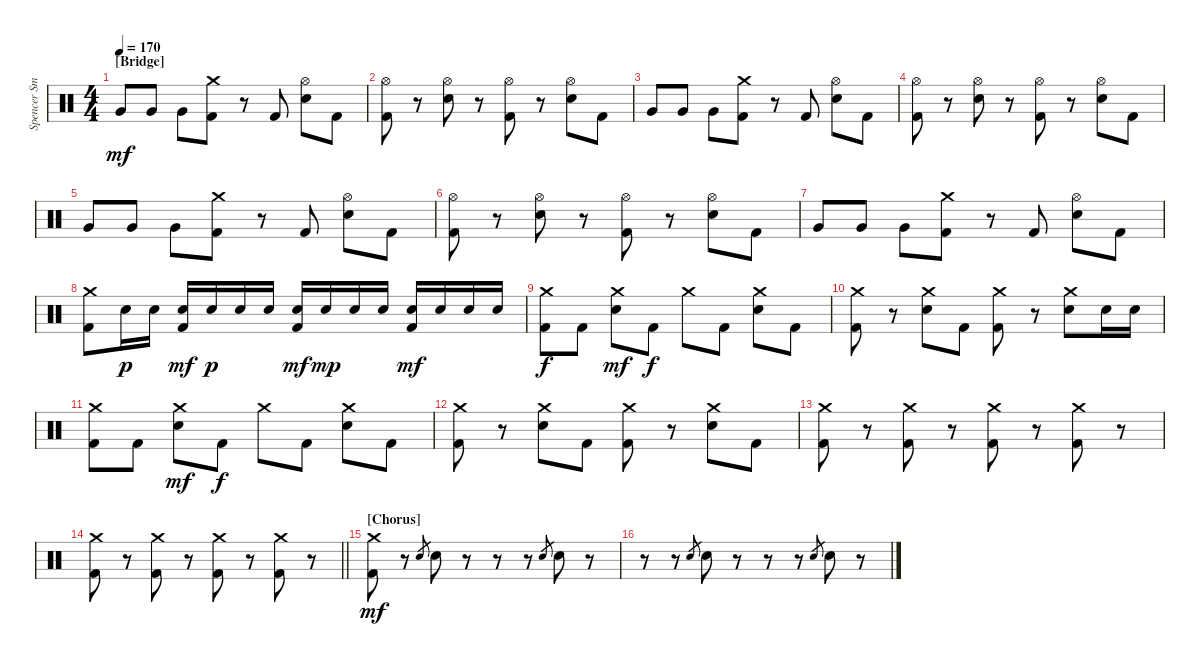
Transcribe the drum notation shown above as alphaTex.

\track ("Spencer Smith" "Spencer Sm") {instrument percussion}
\staff {score}
\articulation defaults
\ts (4 4)
\section ("" "[Bridge]")
\tempo 170
\clef neutral
\ks c "Very Low Tom (hit)".8{dy mf} "Very Low Tom (hit)".8 "Very Low Tom (hit)".8
("Crash medium (hit)" "Kick (hit) 2").8 r.8 "Kick (hit) 2".8 ("Hi-Hat (open)" "Electric Snare (hit)").8 "Kick (hit) 2".8 |
("Hi-Hat (open)" "Kick (hit) 2").8 r.8 ("Hi-Hat (open)" "Electric Snare (hit)").8 r.8 ("Hi-Hat (open)" "Kick (hit) 2").8 r.8 ("Hi-Hat (open)" "Electric Snare (hit)").8 "Kick (hit) 2".8 |
"Very Low Tom (hit)".8 "Very Low Tom (hit)".8 "Very Low Tom (hit)".8 ("Crash medium (hit)" "Kick (hit) 2").8 r.8 "Kick (hit) 2".8 ("Hi-Hat (open)" "Electric Snare (hit)").8 "Kick (hit) 2".8 |
("Hi-Hat (open)" "Kick (hit) 2").8 r.8 ("Hi-Hat (open)" "Electric Snare (hit)").8 r.8 ("Hi-Hat (open)" "Kick (hit) 2").8 r.8 ("Hi-Hat (open)" "Electric Snare (hit)").8 "Kick (hit) 2".8 |
"Very Low Tom (hit)".8 "Very Low Tom (hit)".8 "Very Low Tom (hit)".8 ("Crash medium (hit)" "Kick (hit) 2").8 r.8 "Kick (hit) 2".8 ("Hi-Hat (open)" "Electric Snare (hit)").8 "Kick (hit) 2".8 |
("Hi-Hat (open)" "Kick (hit) 2").8 r.8 ("Hi-Hat (open)" "Electric Snare (hit)").8 r.8 ("Hi-Hat (open)" "Kick (hit) 2").8 r.8 ("Hi-Hat (open)" "Electric Snare (hit)").8 "Kick (hit) 2".8 |
"Very Low Tom (hit)".8 "Very Low Tom (hit)".8 "Very Low Tom (hit)".8 ("Crash medium (hit)" "Kick (hit) 2").8 r.8 "Kick (hit) 2".8 ("Hi-Hat (open)" "Electric Snare (hit)").8 "Kick (hit) 2".8 |
("Crash medium (hit)" "Kick (hit) 2").8 "Electric Snare (hit)".16{dy p} "Electric Snare (hit)".16 ("Electric Snare (hit)" "Kick (hit) 2").16{dy mf} "Electric Snare (hit)".16{dy p} "Electric Snare (hit)".16 "Electric Snare (hit)".16 ("Electric Snare (hit)" "Kick (hit) 2").16{dy mf} "Electric Snare (hit)".16{dy mp} "Electric Snare (hit)".16 "Electric Snare (hit)".16 ("Electric Snare (hit)" "Kick (hit) 2").16{dy mf} "Electric Snare (hit)".16 "Electric Snare (hit)".16 "Electric Snare (hit)".16 |
("Crash medium (hit)" "Kick (hit) 2").8{dy f} "Kick (hit) 2".8 ("Crash medium (hit)" "Electric Snare (hit)").8{dy mf} "Kick (hit) 2".8{dy f} "Crash medium (hit)".8 "Kick (hit) 2".8 ("Crash medium (hit)" "Electric Snare (hit)").8 "Kick (hit) 2".8 |
("Crash medium (hit)" "Kick (hit) 2").8 r.8 ("Crash medium (hit)" "Electric Snare (hit)").8 "Kick (hit) 2".8 ("Crash medium (hit)" "Kick (hit) 2").8 r.8 ("Crash medium (hit)" "Electric Snare (hit)").8 "Electric Snare (hit)".16 "Electric Snare (hit)".16 |
("Crash medium (hit)" "Kick (hit) 2").8 "Kick (hit) 2".8 ("Crash medium (hit)" "Electric Snare (hit)").8{dy mf} "Kick (hit) 2".8{dy f} "Crash medium (hit)".8 "Kick (hit) 2".8 ("Crash medium (hit)" "Electric Snare (hit)").8 "Kick (hit) 2".8 |
("Crash medium (hit)" "Kick (hit) 2").8 r.8 ("Crash medium (hit)" "Electric Snare (hit)").8 "Kick (hit) 2".8 ("Crash medium (hit)" "Kick (hit) 2").8 r.8 ("Crash medium (hit)" "Electric Snare (hit)").8 "Kick (hit) 2".8 |
("Crash medium (hit)" "Kick (hit) 2").8 r.8 ("Crash medium (hit)" "Kick (hit) 2").8 r.8 ("Crash medium (hit)" "Kick (hit) 2").8 r.8 ("Crash medium (hit)" "Kick (hit) 2").8 r.8 |
\barLineRight lightlight
("Crash medium (hit)" "Kick (hit) 2").8 r.8 ("Crash medium (hit)" "Kick (hit) 2").8 r.8 ("Crash medium (hit)" "Kick (hit) 2").8 r.8 ("Crash medium (hit)" "Kick (hit) 2").8 r.8 |
\section ("" "[Chorus]")
("Crash medium (hit)" "Kick (hit) 2").8{dy mf} r.8 "Electric Snare (hit)".8{gr} "Electric Snare (hit)".8 r.8 r.8 r.8 "Electric Snare (hit)".8{gr} "Electric Snare (hit)".8 r.8 |
r.8 r.8 "Electric Snare (hit)".8{gr} "Electric Snare (hit)".8 r.8 r.8 r.8 "Electric Snare (hit)".8{gr} "Electric Snare (hit)".8 r.8
